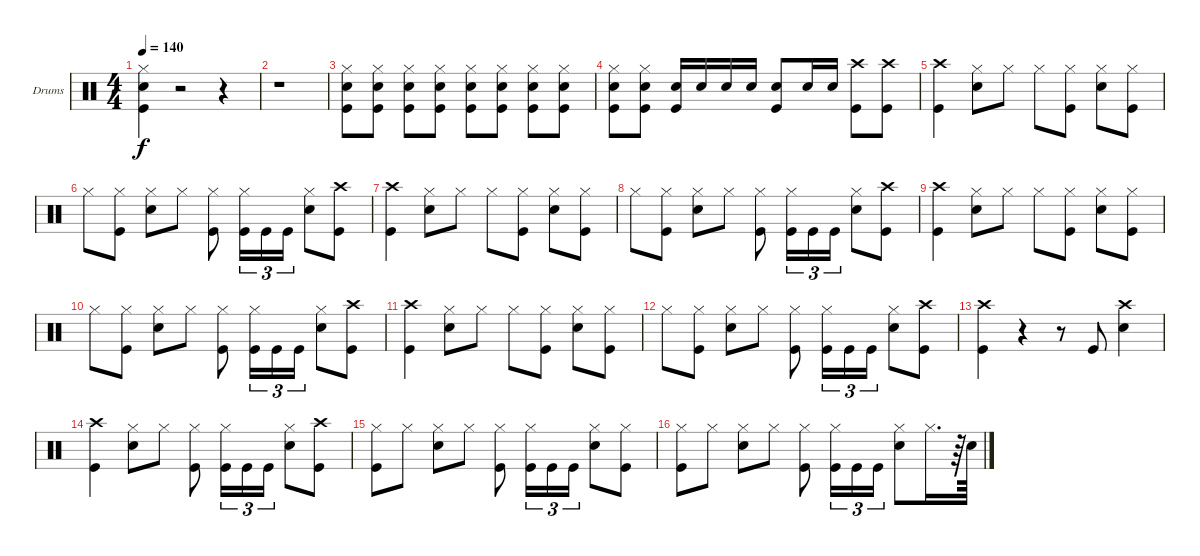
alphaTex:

\defaultSystemsLayout 4
\bracketExtendMode groupsimilarinstruments
\firstSystemTrackNameOrientation horizontal
\otherSystemsTrackNameOrientation horizontal
\track ("Drums" "Drums") {instrument percussion}
\staff {score}
\articulation defaults
\ts (4 4)
\tempo 140
\clef neutral
\ks c
("Kick (hit)" "Snare (hit) 2" "Hi-Hat (closed)").4{dy f} r.2 r.4 |
r.1 |
("Snare (hit) 2" "Hi-Hat (closed)" "Kick (hit)").8 ("Hi-Hat (closed)" "Snare (hit) 2" "Kick (hit)").8 ("Snare (hit) 2" "Hi-Hat (closed)" "Kick (hit)").8 ("Hi-Hat (closed)" "Snare (hit) 2" "Kick (hit)").8 ("Snare (hit) 2" "Hi-Hat (closed)" "Kick (hit)").8 ("Hi-Hat (closed)" "Snare (hit) 2" "Kick (hit)").8 ("Snare (hit) 2" "Hi-Hat (closed)" "Kick (hit)").8 ("Hi-Hat (closed)" "Snare (hit) 2" "Kick (hit)").8 |
("Snare (hit) 2" "Hi-Hat (closed)" "Kick (hit)").8 ("Hi-Hat (closed)" "Snare (hit) 2" "Kick (hit)").8 ("Kick (hit)" "Snare (hit) 2").16 "Snare (hit) 2".16 "Snare (hit) 2".16 "Snare (hit) 2".16 ("Kick (hit)" "Snare (hit) 2").8 "Snare (hit) 2".16 "Snare (hit) 2".16 ("Crash high (hit)" "Kick (hit)").8 ("Crash high (hit)" "Kick (hit)").8 |
("Kick (hit)" "Crash high (hit)").4 ("Snare (hit) 2" "Hi-Hat (closed)").8 "Hi-Hat (closed)".8 "Hi-Hat (closed)".8 ("Kick (hit)" "Hi-Hat (closed)").8 ("Snare (hit) 2" "Hi-Hat (closed)").8 ("Kick (hit)" "Hi-Hat (closed)").8 |
"Hi-Hat (closed)".8 ("Kick (hit)" "Hi-Hat (closed)").8 ("Snare (hit) 2" "Hi-Hat (closed)").8 "Hi-Hat (closed)".8 ("Kick (hit)" "Hi-Hat (closed)").8 ("Kick (hit)" "Hi-Hat (closed)").16{tu (3 2)} "Kick (hit)".16{tu (3 2)} "Kick (hit)".16{tu (3 2)} ("Snare (hit) 2" "Hi-Hat (closed)").8 ("Kick (hit)" "Crash high (hit)").8 |
("Kick (hit)" "Crash high (hit)").4 ("Snare (hit) 2" "Hi-Hat (closed)").8 "Hi-Hat (closed)".8 "Hi-Hat (closed)".8 ("Kick (hit)" "Hi-Hat (closed)").8 ("Snare (hit) 2" "Hi-Hat (closed)").8 ("Kick (hit)" "Hi-Hat (closed)").8 |
"Hi-Hat (closed)".8 ("Kick (hit)" "Hi-Hat (closed)").8 ("Snare (hit) 2" "Hi-Hat (closed)").8 "Hi-Hat (closed)".8 ("Kick (hit)" "Hi-Hat (closed)").8 ("Kick (hit)" "Hi-Hat (closed)").16{tu (3 2)} "Kick (hit)".16{tu (3 2)} "Kick (hit)".16{tu (3 2)} ("Snare (hit) 2" "Hi-Hat (closed)").8 ("Kick (hit)" "Crash high (hit)").8 |
("Kick (hit)" "Crash high (hit)").4 ("Snare (hit) 2" "Hi-Hat (closed)").8 "Hi-Hat (closed)".8 "Hi-Hat (closed)".8 ("Kick (hit)" "Hi-Hat (closed)").8 ("Snare (hit) 2" "Hi-Hat (closed)").8 ("Kick (hit)" "Hi-Hat (closed)").8 |
"Hi-Hat (closed)".8 ("Kick (hit)" "Hi-Hat (closed)").8 ("Snare (hit) 2" "Hi-Hat (closed)").8 "Hi-Hat (closed)".8 ("Kick (hit)" "Hi-Hat (closed)").8 ("Kick (hit)" "Hi-Hat (closed)").16{tu (3 2)} "Kick (hit)".16{tu (3 2)} "Kick (hit)".16{tu (3 2)} ("Snare (hit) 2" "Hi-Hat (closed)").8 ("Kick (hit)" "Crash high (hit)").8 |
("Kick (hit)" "Crash high (hit)").4 ("Snare (hit) 2" "Hi-Hat (closed)").8 "Hi-Hat (closed)".8 "Hi-Hat (closed)".8 ("Kick (hit)" "Hi-Hat (closed)").8 ("Snare (hit) 2" "Hi-Hat (closed)").8 ("Kick (hit)" "Hi-Hat (closed)").8 |
"Hi-Hat (closed)".8 ("Kick (hit)" "Hi-Hat (closed)").8 ("Snare (hit) 2" "Hi-Hat (closed)").8 "Hi-Hat (closed)".8 ("Kick (hit)" "Hi-Hat (closed)").8 ("Kick (hit)" "Hi-Hat (closed)").16{tu (3 2)} "Kick (hit)".16{tu (3 2)} "Kick (hit)".16{tu (3 2)} ("Snare (hit) 2" "Hi-Hat (closed)").8 ("Kick (hit)" "Crash high (hit)").8 |
("Kick (hit)" "Crash high (hit)").4 r.4 r.8 "Kick (hit)".8 ("Crash high (hit)" "Snare (hit) 2").4 |
("Crash high (hit)" "Kick (hit)").4 ("Snare (hit) 2" "Hi-Hat (closed)").8 "Hi-Hat (closed)".8 ("Kick (hit)" "Hi-Hat (closed)").8 ("Kick (hit)" "Hi-Hat (closed)").16{tu (3 2)} "Kick (hit)".16{tu (3 2)} "Kick (hit)".16{tu (3 2)} ("Snare (hit) 2" "Hi-Hat (closed)").8 ("Kick (hit)" "Crash high (hit)").8 |
("Kick (hit)" "Hi-Hat (closed)").8 "Hi-Hat (closed)".8 ("Snare (hit) 2" "Hi-Hat (closed)").8 "Hi-Hat (closed)".8 ("Kick (hit)" "Hi-Hat (closed)").8 ("Kick (hit)" "Hi-Hat (closed)").16{tu (3 2)} "Kick (hit)".16{tu (3 2)} "Kick (hit)".16{tu (3 2)} ("Snare (hit) 2" "Hi-Hat (closed)").8 ("Hi-Hat (closed)" "Kick (hit)").8 |
("Kick (hit)" "Hi-Hat (closed)").8 "Hi-Hat (closed)".8 ("Snare (hit) 2" "Hi-Hat (closed)").8 "Hi-Hat (closed)".8 ("Kick (hit)" "Hi-Hat (closed)").8 ("Kick (hit)" "Hi-Hat (closed)").16{tu (3 2)} "Kick (hit)".16{tu (3 2)} "Kick (hit)".16{tu (3 2)} ("Snare (hit) 2" "Hi-Hat (closed)").8 "Hi-Hat (closed)".16{d} r.64 "Snare (hit) 2".64
